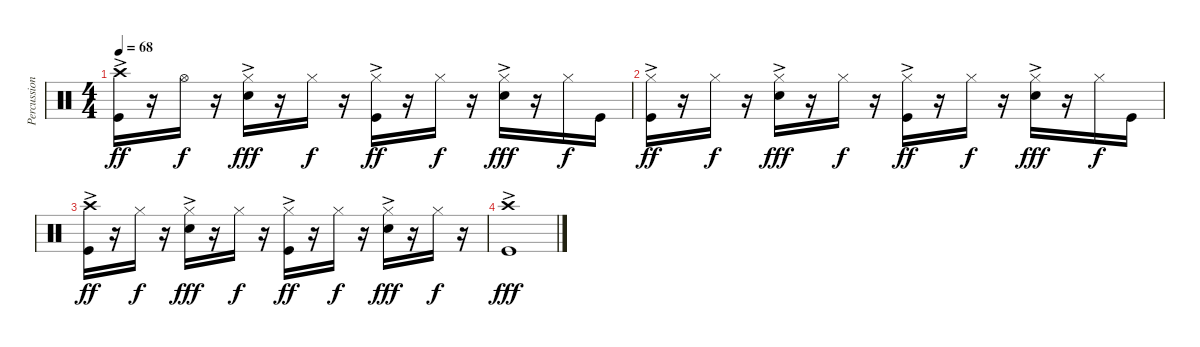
\track ("Percussion" "Percussion") {instrument percussion}
\staff {score}
\articulation defaults
\ts (4 4)
\tempo 68
\clef neutral
\ks c
("Crash high (hit)" "Kick (hit)"{ac}).16{dy ff} r.16 "Hi-Hat (open)".16{dy f} r.16 ("Hi-Hat (closed)" "Snare (hit) 2"{ac}).16{dy fff} r.16 "Hi-Hat (closed)".16{dy f} r.16 ("Hi-Hat (closed)" "Kick (hit)"{ac}).16{dy ff} r.16 "Hi-Hat (closed)".16{dy f} r.16 ("Hi-Hat (closed)" "Snare (hit) 2"{ac}).16{dy fff} r.16 "Hi-Hat (closed)".16{dy f} "Kick (hit)".16 |
("Hi-Hat (closed)" "Kick (hit)"{ac}).16{dy ff} r.16 "Hi-Hat (closed)".16{dy f} r.16 ("Hi-Hat (closed)" "Snare (hit) 2"{ac}).16{dy fff} r.16 "Hi-Hat (closed)".16{dy f} r.16 ("Hi-Hat (closed)" "Kick (hit)"{ac}).16{dy ff} r.16 "Hi-Hat (closed)".16{dy f} r.16 ("Hi-Hat (closed)" "Snare (hit) 2"{ac}).16{dy fff} r.16 "Hi-Hat (closed)".16{dy f} "Kick (hit)".16 |
("Crash high (hit)" "Kick (hit)"{ac}).16{dy ff} r.16 "Hi-Hat (closed)".16{dy f} r.16 ("Hi-Hat (closed)" "Snare (hit) 2"{ac}).16{dy fff} r.16 "Hi-Hat (closed)".16{dy f} r.16 ("Hi-Hat (closed)" "Kick (hit)"{ac}).16{dy ff} r.16 "Hi-Hat (closed)".16{dy f} r.16 ("Hi-Hat (closed)" "Snare (hit) 2"{ac}).16{dy fff} r.16 "Hi-Hat (closed)".16{dy f} r.16 |
("Crash high (hit)" "Kick (hit)"{ac}).1{dy fff}
